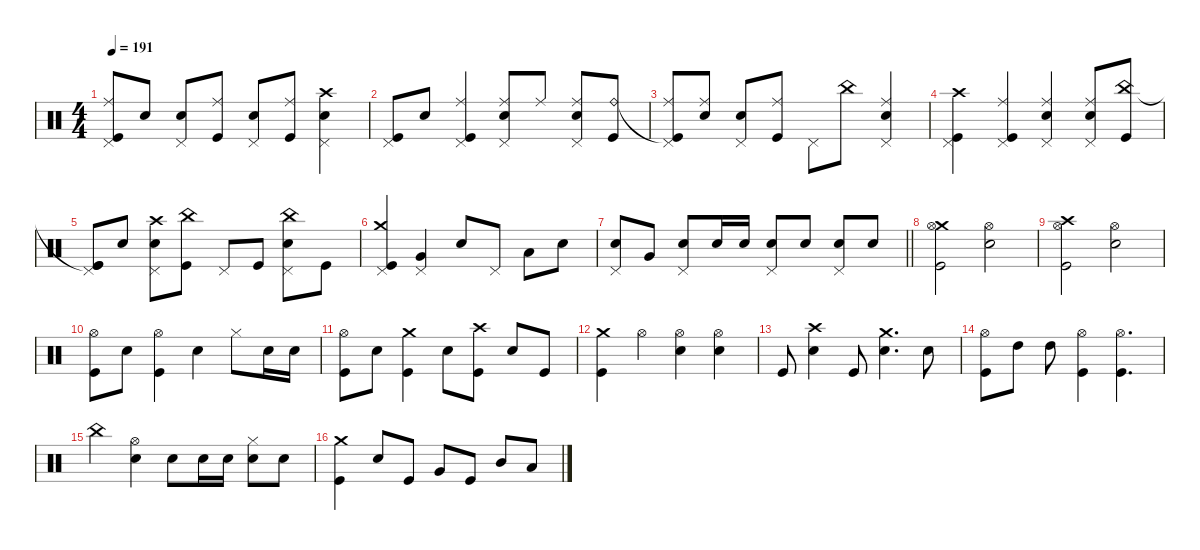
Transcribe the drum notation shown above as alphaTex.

\defaultSystemsLayout 4
\hideDynamics
\bracketExtendMode nobrackets
\singleTrackTrackNamePolicy hidden
\multiTrackTrackNamePolicy hidden
\firstSystemTrackNameMode fullname
\firstSystemTrackNameOrientation horizontal
\otherSystemsTrackNameOrientation horizontal
\track ("Drumkit" "drm.") {instrument percussion}
\staff {score}
\articulation defaults
\ts (4 4)
\tempo 191
\clef neutral
\ks c
("Pedal Hi-Hat (hit)" "Kick (hit)"{t} "Ride (middle)").8{dy f beam Up} "Snare (hit) 2".8{dy mp beam Up} ("Pedal Hi-Hat (hit)" "Snare (hit) 2").8{dy f beam Up} ("Kick (hit)" "Ride (middle)").8{dy mp beam Up} ("Pedal Hi-Hat (hit)" "Snare (hit) 2").8{dy f beam Up} ("Kick (hit)" "Ride (middle)").8{dy mp beam Up} ("Pedal Hi-Hat (hit)" "Snare (hit) 2" "Crash high (hit)").4{dy f beam Down} |
("Pedal Hi-Hat (hit)" "Kick (hit)").8{beam Up} "Snare (hit) 2".8{dy mp beam Up} ("Pedal Hi-Hat (hit)" "Kick (hit)" "Ride (middle)").4{dy f beam Up} ("Pedal Hi-Hat (hit)" "Snare (hit) 2" "Ride (middle)").8{beam Up} "Ride (middle)".8{dy mp beam Up} ("Pedal Hi-Hat (hit)" "Snare (hit) 2" "Ride (middle)").8{dy f beam Up} ("Kick (hit)" "Ride (bell)").8{dy mp beam Up} |
("Pedal Hi-Hat (hit)" "Kick (hit)"{t} "Ride (middle)").8{dy f beam Up} ("Snare (hit) 2" "Ride (middle)").8{dy mp beam Up} ("Pedal Hi-Hat (hit)" "Snare (hit) 2").8{dy f beam Up} ("Kick (hit)" "Ride (middle)").8{dy mp beam Up} "Pedal Hi-Hat (hit)".8{dy f beam Down} "China (hit)".8{dy mp beam Down} ("Pedal Hi-Hat (hit)" "Snare (hit) 2" "Ride (middle)").4{dy f beam Up} |
("Pedal Hi-Hat (hit)" "Kick (hit)" "Crash high (hit)").4{beam Down} ("Pedal Hi-Hat (hit)" "Kick (hit)" "Ride (middle)").4{beam Up} ("Pedal Hi-Hat (hit)" "Snare (hit) 2" "Ride (middle)").4{beam Up} ("Pedal Hi-Hat (hit)" "Snare (hit) 2" "Ride (middle)").8{beam Up} ("Kick (hit)" "China (hit)").8{dy mp beam Up} |
("Kick (hit)" "Kick (hit)"{t} "Pedal Hi-Hat (hit)").8{beam Up} "Snare (hit) 2".8{beam Up} ("Snare (hit) 2" "Crash high (hit)" "Pedal Hi-Hat (hit)").8{beam Down} ("Kick (hit)" "China (hit)").8{beam Down} "Pedal Hi-Hat (hit)".8{beam Up} "Kick (hit)".8{beam Up} ("Snare (hit) 2" "China (hit)" "Pedal Hi-Hat (hit)").8{beam Down} "Kick (hit)".8{beam Down} |
("Kick (hit)" "Crash medium (hit)" "Pedal Hi-Hat (hit)").4{beam Up} ("Pedal Hi-Hat (hit)" "Very Low Tom (hit)").4{dy f beam Up} "Snare (hit) 2".8{beam Up} "Pedal Hi-Hat (hit)".8{beam Up} "Low Tom (hit)".8{beam Down} "Snare (hit) 2".8{beam Down} |
\barLineRight lightlight
("Snare (hit) 2" "Pedal Hi-Hat (hit)").8{beam Up} "Very Low Tom (hit)".8{beam Up} ("Snare (hit) 2" "Pedal Hi-Hat (hit)").8{beam Up} "Snare (hit) 2".16{dy mp beam Up} "Snare (hit) 2".16{beam Up} ("Snare (hit) 2" "Pedal Hi-Hat (hit)").8{dy f beam Up} "Snare (hit) 2".8{beam Up} ("Snare (hit) 2" "Pedal Hi-Hat (hit)").8{dy mf beam Up} "Snare (hit) 2".8{dy f beam Up} |
("Kick (hit)" "Crash medium (hit)" "Hi-Hat (open)").2{beam Down} ("Snare (hit) 2" "Hi-Hat (open)").2{beam Down} |
("Kick (hit)" "Crash high (hit)" "Hi-Hat (open)").2{beam Down} ("Snare (hit) 2" "Hi-Hat (open)").2{beam Down} |
("Kick (hit)" "Hi-Hat (open)").8{beam Down} "Snare (hit) 2".8{dy mf beam Down} ("Kick (hit)" "Hi-Hat (open)").4{dy f beam Down} "Snare (hit) 2".4{beam Down} "Hi-Hat (closed)".8{beam Down} "Snare (hit) 2".16{beam Down} "Snare (hit) 2".16{beam Down} |
("Kick (hit)" "Hi-Hat (open)").8{beam Down} "Snare (hit) 2".8{beam Down} ("Kick (hit)" "Crash medium (hit)").4{beam Down} "Snare (hit) 2".8{beam Down} ("Crash high (hit)" "Kick (hit)").8{beam Down} "Snare (hit) 2".8{dy mf beam Up} "Kick (hit)".8{dy f beam Up} |
("Kick (hit)" "Crash medium (hit)").4{beam Down} "Hi-Hat (open)".4{beam Down} ("Hi-Hat (open)" "Snare (hit) 2").4{beam Down} ("Hi-Hat (open)" "Snare (hit) 2").4{beam Down} |
"Kick (hit)".8{beam Up} ("Snare (hit) 2" "Crash high (hit)").4{beam Down} "Kick (hit)".8{beam Up} ("Snare (hit) 2" "Crash medium (hit)").4{d beam Down} "Snare (hit) 2".8{beam Down} |
("Kick (hit)" "Hi-Hat (open)").8{beam Down} "High Tom (hit)".8{dy mp beam Down} "High Tom (hit)".8{beam Down} ("Hi-Hat (open)" "Kick (hit)").4{beam Down} ("Kick (hit)" "Hi-Hat (open)").4{d beam Down} |
"China (hit)".4{dy mf beam Down} ("Snare (hit) 2" "Hi-Hat (open)").4{beam Down} "Snare (hit) 2".8{beam Down} "Snare (hit) 2".16{beam Down} "Snare (hit) 2".16{beam Down} ("Snare (hit) 2" "Hi-Hat (closed)").8{beam Down} "Snare (hit) 2".8{beam Down} |
("Kick (hit)" "Crash medium (hit)").4{beam Down} "Snare (hit) 2".8{beam Up} "Kick (hit)".8{beam Up} "Very Low Tom (hit)".8{beam Up} "Kick (hit)".8{beam Up} "Mid Tom (hit)".8{beam Up} "Low Tom (hit)".8{beam Up}
